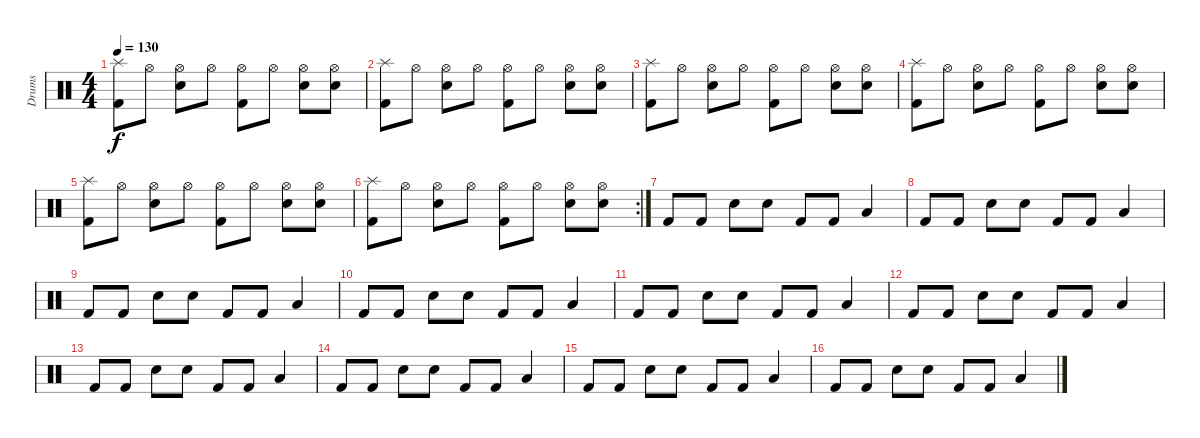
\track ("Drums" "Drums") {instrument percussion}
\staff {score}
\articulation defaults
\ts (4 4)
\tempo 130
\clef neutral
\ks c
("Splash (hit)" "Kick (hit) 2").8{dy f} "Hi-Hat (open)".8 ("Hi-Hat (open)" "Snare (hit) 2").8 "Hi-Hat (open)".8 ("Hi-Hat (open)" "Kick (hit) 2").8 "Hi-Hat (open)".8 ("Hi-Hat (open)" "Snare (hit) 2").8 ("Hi-Hat (open)" "Snare (hit) 2").8 |
("Splash (hit)" "Kick (hit) 2").8 "Hi-Hat (open)".8 ("Hi-Hat (open)" "Snare (hit) 2").8 "Hi-Hat (open)".8 ("Hi-Hat (open)" "Kick (hit) 2").8 "Hi-Hat (open)".8 ("Hi-Hat (open)" "Snare (hit) 2").8 ("Hi-Hat (open)" "Snare (hit) 2").8 |
("Splash (hit)" "Kick (hit) 2").8 "Hi-Hat (open)".8 ("Hi-Hat (open)" "Snare (hit) 2").8 "Hi-Hat (open)".8 ("Hi-Hat (open)" "Kick (hit) 2").8 "Hi-Hat (open)".8 ("Hi-Hat (open)" "Snare (hit) 2").8 ("Hi-Hat (open)" "Snare (hit) 2").8 |
("Splash (hit)" "Kick (hit) 2").8 "Hi-Hat (open)".8 ("Hi-Hat (open)" "Snare (hit) 2").8 "Hi-Hat (open)".8 ("Hi-Hat (open)" "Kick (hit) 2").8 "Hi-Hat (open)".8 ("Hi-Hat (open)" "Snare (hit) 2").8 ("Hi-Hat (open)" "Snare (hit) 2").8 |
("Splash (hit)" "Kick (hit) 2").8 "Hi-Hat (open)".8 ("Hi-Hat (open)" "Snare (hit) 2").8 "Hi-Hat (open)".8 ("Hi-Hat (open)" "Kick (hit) 2").8 "Hi-Hat (open)".8 ("Hi-Hat (open)" "Snare (hit) 2").8 ("Hi-Hat (open)" "Snare (hit) 2").8 |
\rc 2
("Splash (hit)" "Kick (hit) 2").8 "Hi-Hat (open)".8 ("Hi-Hat (open)" "Snare (hit) 2").8 "Hi-Hat (open)".8 ("Hi-Hat (open)" "Kick (hit) 2").8 "Hi-Hat (open)".8 ("Hi-Hat (open)" "Snare (hit) 2").8 ("Hi-Hat (open)" "Snare (hit) 2").8 |
"Kick (hit) 2".8 "Kick (hit) 2".8 "Electric Snare (hit)".8 "Electric Snare (hit)".8 "Kick (hit) 2".8 "Kick (hit) 2".8 "Low Floor Tom (hit)".4 |
"Kick (hit) 2".8 "Kick (hit) 2".8 "Electric Snare (hit)".8 "Electric Snare (hit)".8 "Kick (hit) 2".8 "Kick (hit) 2".8 "Low Floor Tom (hit)".4 |
"Kick (hit) 2".8 "Kick (hit) 2".8 "Electric Snare (hit)".8 "Electric Snare (hit)".8 "Kick (hit) 2".8 "Kick (hit) 2".8 "Low Floor Tom (hit)".4 |
"Kick (hit) 2".8 "Kick (hit) 2".8 "Electric Snare (hit)".8 "Electric Snare (hit)".8 "Kick (hit) 2".8 "Kick (hit) 2".8 "Low Floor Tom (hit)".4 |
"Kick (hit) 2".8 "Kick (hit) 2".8 "Electric Snare (hit)".8 "Electric Snare (hit)".8 "Kick (hit) 2".8 "Kick (hit) 2".8 "Low Floor Tom (hit)".4 |
"Kick (hit) 2".8 "Kick (hit) 2".8 "Electric Snare (hit)".8 "Electric Snare (hit)".8 "Kick (hit) 2".8 "Kick (hit) 2".8 "Low Floor Tom (hit)".4 |
"Kick (hit) 2".8 "Kick (hit) 2".8 "Electric Snare (hit)".8 "Electric Snare (hit)".8 "Kick (hit) 2".8 "Kick (hit) 2".8 "Low Floor Tom (hit)".4 |
"Kick (hit) 2".8 "Kick (hit) 2".8 "Electric Snare (hit)".8 "Electric Snare (hit)".8 "Kick (hit) 2".8 "Kick (hit) 2".8 "Low Floor Tom (hit)".4 |
"Kick (hit) 2".8 "Kick (hit) 2".8 "Electric Snare (hit)".8 "Electric Snare (hit)".8 "Kick (hit) 2".8 "Kick (hit) 2".8 "Low Floor Tom (hit)".4 |
"Kick (hit) 2".8 "Kick (hit) 2".8 "Electric Snare (hit)".8 "Electric Snare (hit)".8 "Kick (hit) 2".8 "Kick (hit) 2".8 "Low Floor Tom (hit)".4
